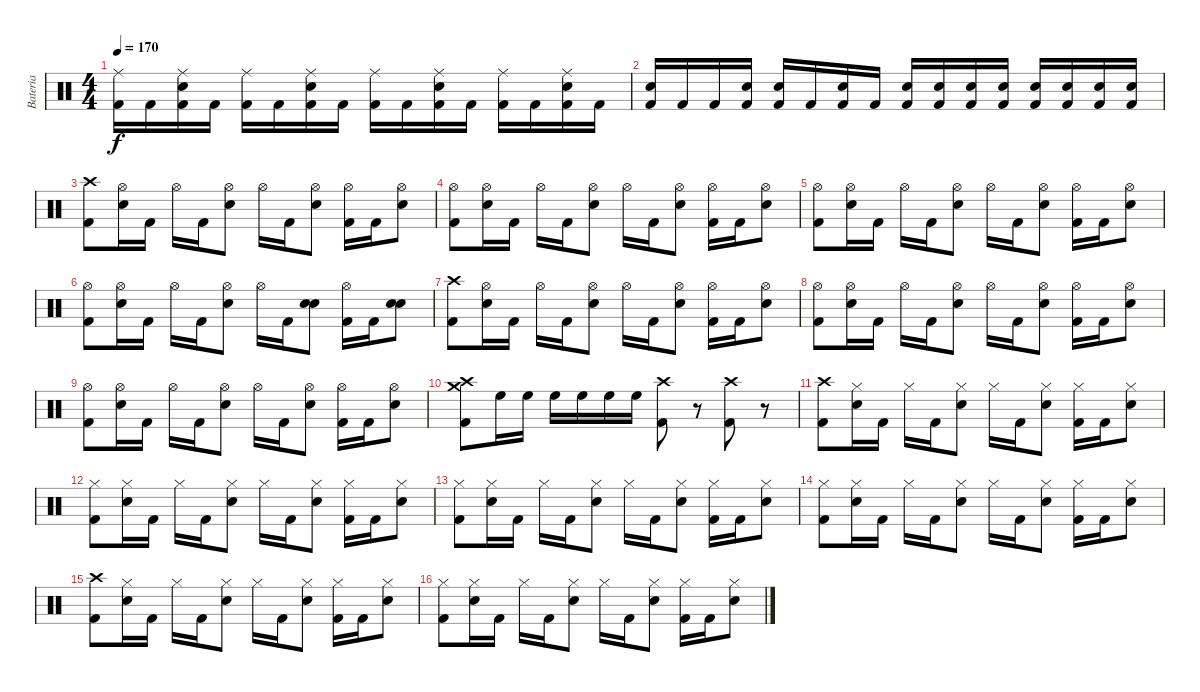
\track ("Bateria" "Bateria") {instrument percussion}
\staff {score}
\articulation defaults
\ts (4 4)
\tempo 170
\clef neutral
\ks c
("Ride (middle)" "Kick (hit) 2").16{dy f} "Kick (hit) 2".16 ("Ride (middle)" "Kick (hit) 2" "Snare (hit) 2").16 "Kick (hit) 2".16 ("Ride (middle)" "Kick (hit) 2").16 "Kick (hit) 2".16 ("Ride (middle)" "Kick (hit) 2" "Snare (hit) 2").16 "Kick (hit) 2".16 ("Ride (middle)" "Kick (hit) 2").16 "Kick (hit) 2".16 ("Ride (middle)" "Kick (hit) 2" "Snare (hit) 2").16 "Kick (hit) 2".16 ("Ride (middle)" "Kick (hit) 2").16 "Kick (hit) 2".16 ("Ride (middle)" "Kick (hit) 2" "Snare (hit) 2").16 "Kick (hit) 2".16 |
("Kick (hit) 2" "Snare (hit) 2").16 "Kick (hit) 2".16 "Kick (hit) 2".16 ("Kick (hit) 2" "Snare (hit) 2").16 ("Kick (hit) 2" "Snare (hit) 2").16 "Kick (hit) 2".16 ("Kick (hit) 2" "Snare (hit) 2").16 "Kick (hit) 2".16 ("Kick (hit) 2" "Snare (hit) 2").16 ("Kick (hit) 2" "Snare (hit) 2").16 ("Kick (hit) 2" "Snare (hit) 2").16 ("Kick (hit) 2" "Snare (hit) 2").16 ("Kick (hit) 2" "Snare (hit) 2").16 ("Kick (hit) 2" "Snare (hit) 2").16 ("Kick (hit) 2" "Snare (hit) 2").16 ("Kick (hit) 2" "Snare (hit) 2").16 |
("Crash high (hit)" "Kick (hit) 2").8 ("Hi-Hat (open)" "Snare (hit) 2").16 "Kick (hit) 2".16 "Hi-Hat (open)".16 "Kick (hit) 2".16 ("Hi-Hat (open)" "Snare (hit) 2").8 "Hi-Hat (open)".16 "Kick (hit) 2".16 ("Hi-Hat (open)" "Snare (hit) 2").8 ("Hi-Hat (open)" "Kick (hit) 2").16 "Kick (hit) 2".16 ("Hi-Hat (open)" "Snare (hit) 2").8 |
("Hi-Hat (open)" "Kick (hit) 2").8 ("Hi-Hat (open)" "Snare (hit) 2").16 "Kick (hit) 2".16 "Hi-Hat (open)".16 "Kick (hit) 2".16 ("Hi-Hat (open)" "Snare (hit) 2").8 "Hi-Hat (open)".16 "Kick (hit) 2".16 ("Hi-Hat (open)" "Snare (hit) 2").8 ("Hi-Hat (open)" "Kick (hit) 2").16 "Kick (hit) 2".16 ("Hi-Hat (open)" "Snare (hit) 2").8 |
("Hi-Hat (open)" "Kick (hit) 2").8 ("Hi-Hat (open)" "Snare (hit) 2").16 "Kick (hit) 2".16 "Hi-Hat (open)".16 "Kick (hit) 2".16 ("Hi-Hat (open)" "Snare (hit) 2").8 "Hi-Hat (open)".16 "Kick (hit) 2".16 ("Hi-Hat (open)" "Snare (hit) 2").8 ("Hi-Hat (open)" "Kick (hit) 2").16 "Kick (hit) 2".16 ("Hi-Hat (open)" "Snare (hit) 2").8 |
("Hi-Hat (open)" "Kick (hit) 2").8 ("Hi-Hat (open)" "Snare (hit) 2").16 "Kick (hit) 2".16 "Hi-Hat (open)".16 "Kick (hit) 2".16 ("Hi-Hat (open)" "Snare (hit) 2").8 "Hi-Hat (open)".16 "Kick (hit) 2".16 ("Electric Snare (hit)" "Snare (hit) 2").8 ("Hi-Hat (open)" "Kick (hit) 2").16 "Kick (hit) 2".16 ("Electric Snare (hit)" "Snare (hit) 2").8 |
("Crash high (hit)" "Kick (hit) 2").8 ("Hi-Hat (open)" "Snare (hit) 2").16 "Kick (hit) 2".16 "Hi-Hat (open)".16 "Kick (hit) 2".16 ("Hi-Hat (open)" "Snare (hit) 2").8 "Hi-Hat (open)".16 "Kick (hit) 2".16 ("Hi-Hat (open)" "Snare (hit) 2").8 ("Hi-Hat (open)" "Kick (hit) 2").16 "Kick (hit) 2".16 ("Hi-Hat (open)" "Snare (hit) 2").8 |
("Hi-Hat (open)" "Kick (hit) 2").8 ("Hi-Hat (open)" "Snare (hit) 2").16 "Kick (hit) 2".16 "Hi-Hat (open)".16 "Kick (hit) 2".16 ("Hi-Hat (open)" "Snare (hit) 2").8 "Hi-Hat (open)".16 "Kick (hit) 2".16 ("Hi-Hat (open)" "Snare (hit) 2").8 ("Hi-Hat (open)" "Kick (hit) 2").16 "Kick (hit) 2".16 ("Hi-Hat (open)" "Snare (hit) 2").8 |
("Hi-Hat (open)" "Kick (hit) 2").8 ("Hi-Hat (open)" "Snare (hit) 2").16 "Kick (hit) 2".16 "Hi-Hat (open)".16 "Kick (hit) 2".16 ("Hi-Hat (open)" "Snare (hit) 2").8 "Hi-Hat (open)".16 "Kick (hit) 2".16 ("Hi-Hat (open)" "Snare (hit) 2").8 ("Hi-Hat (open)" "Kick (hit) 2").16 "Kick (hit) 2".16 ("Hi-Hat (open)" "Snare (hit) 2").8 |
("Crash medium (hit)" "Crash high (hit)" "Kick (hit) 2").8 "High Floor Tom (hit)".16 "High Floor Tom (hit)".16 "High Floor Tom (hit)".16 "High Floor Tom (hit)".16 "High Floor Tom (hit)".16 "High Floor Tom (hit)".16 ("Crash high (hit)" "Kick (hit) 2").8 r.8 ("Crash high (hit)" "Kick (hit) 2").8 r.8 |
("Crash high (hit)" "Kick (hit) 2").8 ("Hi-Hat (closed)" "Snare (hit) 2").16 "Kick (hit) 2".16 "Hi-Hat (closed)".16 "Kick (hit) 2".16 ("Hi-Hat (closed)" "Snare (hit) 2").8 "Hi-Hat (closed)".16 "Kick (hit) 2".16 ("Hi-Hat (closed)" "Snare (hit) 2").8 ("Hi-Hat (closed)" "Kick (hit) 2").16 "Kick (hit) 2".16 ("Hi-Hat (closed)" "Snare (hit) 2").8 |
("Hi-Hat (closed)" "Kick (hit) 2").8 ("Hi-Hat (closed)" "Snare (hit) 2").16 "Kick (hit) 2".16 "Hi-Hat (closed)".16 "Kick (hit) 2".16 ("Hi-Hat (closed)" "Snare (hit) 2").8 "Hi-Hat (closed)".16 "Kick (hit) 2".16 ("Hi-Hat (closed)" "Snare (hit) 2").8 ("Hi-Hat (closed)" "Kick (hit) 2").16 "Kick (hit) 2".16 ("Hi-Hat (closed)" "Snare (hit) 2").8 |
("Hi-Hat (closed)" "Kick (hit) 2").8 ("Hi-Hat (closed)" "Snare (hit) 2").16 "Kick (hit) 2".16 "Hi-Hat (closed)".16 "Kick (hit) 2".16 ("Hi-Hat (closed)" "Snare (hit) 2").8 "Hi-Hat (closed)".16 "Kick (hit) 2".16 ("Hi-Hat (closed)" "Snare (hit) 2").8 ("Hi-Hat (closed)" "Kick (hit) 2").16 "Kick (hit) 2".16 ("Hi-Hat (closed)" "Snare (hit) 2").8 |
("Hi-Hat (closed)" "Kick (hit) 2").8 ("Hi-Hat (closed)" "Snare (hit) 2").16 "Kick (hit) 2".16 "Hi-Hat (closed)".16 "Kick (hit) 2".16 ("Hi-Hat (closed)" "Snare (hit) 2").8 "Hi-Hat (closed)".16 "Kick (hit) 2".16 ("Hi-Hat (closed)" "Snare (hit) 2").8 ("Hi-Hat (closed)" "Kick (hit) 2").16 "Kick (hit) 2".16 ("Hi-Hat (closed)" "Snare (hit) 2").8 |
("Crash high (hit)" "Kick (hit) 2").8 ("Hi-Hat (closed)" "Snare (hit) 2").16 "Kick (hit) 2".16 "Hi-Hat (closed)".16 "Kick (hit) 2".16 ("Hi-Hat (closed)" "Snare (hit) 2").8 "Hi-Hat (closed)".16 "Kick (hit) 2".16 ("Hi-Hat (closed)" "Snare (hit) 2").8 ("Hi-Hat (closed)" "Kick (hit) 2").16 "Kick (hit) 2".16 ("Hi-Hat (closed)" "Snare (hit) 2").8 |
("Hi-Hat (closed)" "Kick (hit) 2").8 ("Hi-Hat (closed)" "Snare (hit) 2").16 "Kick (hit) 2".16 "Hi-Hat (closed)".16 "Kick (hit) 2".16 ("Hi-Hat (closed)" "Snare (hit) 2").8 "Hi-Hat (closed)".16 "Kick (hit) 2".16 ("Hi-Hat (closed)" "Snare (hit) 2").8 ("Hi-Hat (closed)" "Kick (hit) 2").16 "Kick (hit) 2".16 ("Hi-Hat (closed)" "Snare (hit) 2").8
